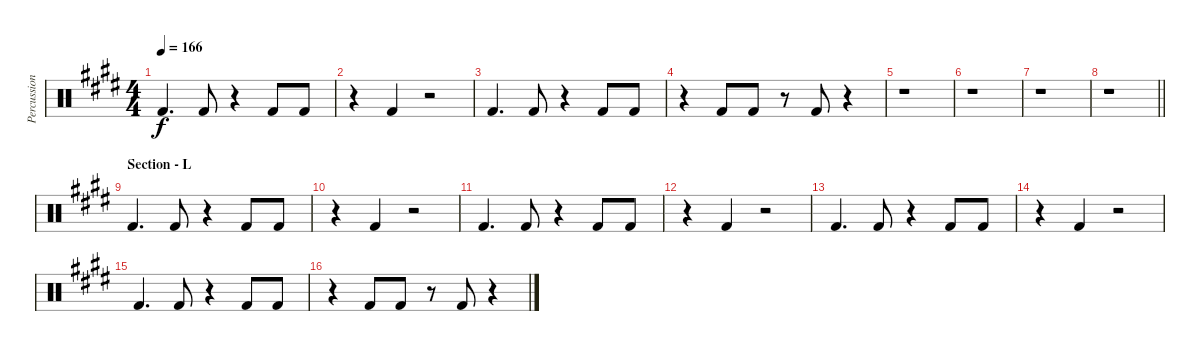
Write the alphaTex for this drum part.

\track ("Percussion - Other Again" "Percussion") {instrument percussion}
\staff {score}
\articulation defaults
\ts (4 4)
\tempo 166
\clef neutral
\ks e "Kick (hit) 2".4{d dy f} "Kick (hit) 2".8
r.4 "Kick (hit) 2".8 "Kick (hit) 2".8 |
r.4 "Kick (hit) 2".4 r.2 |
"Kick (hit) 2".4{d} "Kick (hit) 2".8 r.4 "Kick (hit) 2".8 "Kick (hit) 2".8 |
r.4 "Kick (hit) 2".8 "Kick (hit) 2".8 r.8 "Kick (hit) 2".8 r.4 |
r.1 |
r.1 |
r.1 |
\barLineRight lightlight
r.1 |
\section ("" "Section - L")
"Kick (hit) 2".4{d} "Kick (hit) 2".8 r.4 "Kick (hit) 2".8 "Kick (hit) 2".8 |
r.4 "Kick (hit) 2".4 r.2 |
"Kick (hit) 2".4{d} "Kick (hit) 2".8 r.4 "Kick (hit) 2".8 "Kick (hit) 2".8 |
r.4 "Kick (hit) 2".4 r.2 |
"Kick (hit) 2".4{d} "Kick (hit) 2".8 r.4 "Kick (hit) 2".8 "Kick (hit) 2".8 |
r.4 "Kick (hit) 2".4 r.2 |
"Kick (hit) 2".4{d} "Kick (hit) 2".8 r.4 "Kick (hit) 2".8 "Kick (hit) 2".8 |
r.4 "Kick (hit) 2".8 "Kick (hit) 2".8 r.8 "Kick (hit) 2".8 r.4
